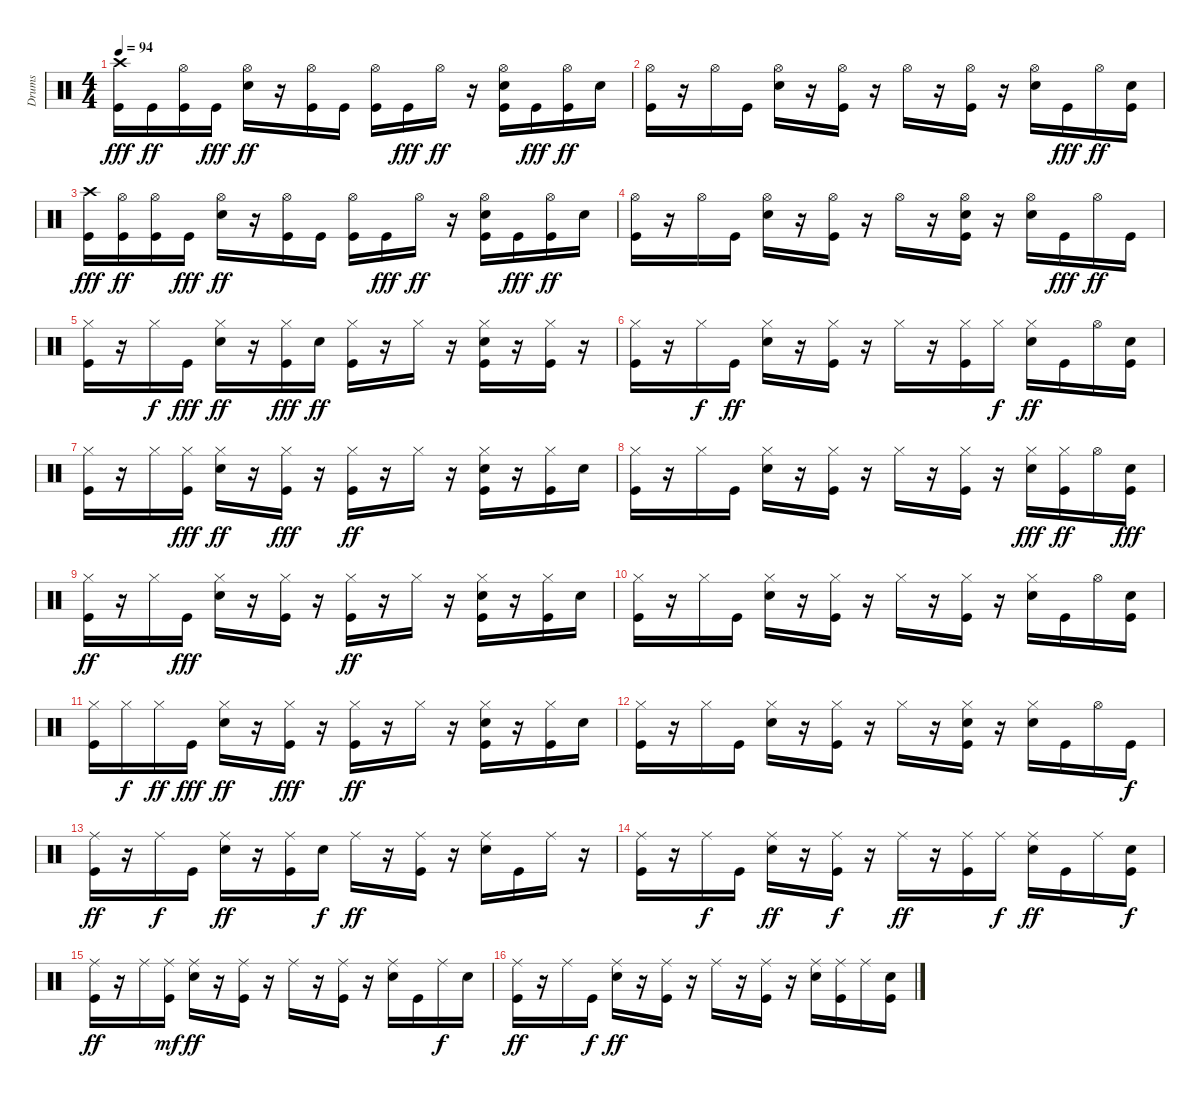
\track ("Drums" "Drums") {instrument percussion}
\staff {score}
\articulation defaults
\ts (4 4)
\tempo 94
\clef neutral
\ks c
("Crash high (hit)" "Kick (hit)").16{dy fff} "Kick (hit)".16{dy ff} ("Kick (hit)" "Hi-Hat (open)").16 "Kick (hit)".16{dy fff} ("Snare (hit) 2" "Hi-Hat (open)").16{dy ff} r.16 ("Kick (hit)" "Hi-Hat (open)").16 "Kick (hit)".16 ("Kick (hit)" "Hi-Hat (open)").16 "Kick (hit)".16{dy fff} "Hi-Hat (open)".16{dy ff} r.16 ("Kick (hit)" "Snare (hit) 2" "Hi-Hat (open)").16 "Kick (hit)".16{dy fff} ("Kick (hit)" "Hi-Hat (open)").16{dy ff} "Snare (hit) 2".16 |
("Kick (hit)" "Hi-Hat (open)").16 r.16 "Hi-Hat (open)".16 "Kick (hit)".16 ("Snare (hit) 2" "Hi-Hat (open)").16 r.16 ("Kick (hit)" "Hi-Hat (open)").16 r.16 "Hi-Hat (open)".16 r.16 ("Kick (hit)" "Hi-Hat (open)").16 r.16 ("Snare (hit) 2" "Hi-Hat (open)").16 "Kick (hit)".16{dy fff} "Hi-Hat (open)".16{dy ff} ("Kick (hit)" "Snare (hit) 2").16 |
("Crash high (hit)" "Kick (hit)").16{dy fff} ("Hi-Hat (open)" "Kick (hit)").16{dy ff} ("Kick (hit)" "Hi-Hat (open)").16 "Kick (hit)".16{dy fff} ("Snare (hit) 2" "Hi-Hat (open)").16{dy ff} r.16 ("Kick (hit)" "Hi-Hat (open)").16 "Kick (hit)".16 ("Kick (hit)" "Hi-Hat (open)").16 "Kick (hit)".16{dy fff} "Hi-Hat (open)".16{dy ff} r.16 ("Kick (hit)" "Snare (hit) 2" "Hi-Hat (open)").16 "Kick (hit)".16{dy fff} ("Kick (hit)" "Hi-Hat (open)").16{dy ff} "Snare (hit) 2".16 |
("Kick (hit)" "Hi-Hat (open)").16 r.16 "Hi-Hat (open)".16 "Kick (hit)".16 ("Snare (hit) 2" "Hi-Hat (open)").16 r.16 ("Kick (hit)" "Hi-Hat (open)").16 r.16 "Hi-Hat (open)".16 r.16 ("Kick (hit)" "Snare (hit) 2" "Hi-Hat (open)").16 r.16 ("Snare (hit) 2" "Hi-Hat (open)").16 "Kick (hit)".16{dy fff} "Hi-Hat (open)".16{dy ff} "Kick (hit)".16 |
("Hi-Hat (closed)" "Kick (hit)").16 r.16 "Hi-Hat (closed)".16{dy f} "Kick (hit)".16{dy fff} ("Snare (hit) 2" "Hi-Hat (closed)").16{dy ff} r.16 ("Hi-Hat (closed)" "Kick (hit)").16{dy fff} "Snare (hit) 2".16{dy ff} ("Hi-Hat (closed)" "Kick (hit)").16 r.16 "Hi-Hat (closed)".16 r.16 ("Snare (hit) 2" "Hi-Hat (closed)" "Kick (hit)").16 r.16 ("Hi-Hat (closed)" "Kick (hit)").16 r.16 |
("Hi-Hat (closed)" "Kick (hit)").16 r.16 "Hi-Hat (closed)".16{dy f} "Kick (hit)".16{dy ff} ("Snare (hit) 2" "Hi-Hat (closed)").16 r.16 ("Hi-Hat (closed)" "Kick (hit)").16 r.16 "Hi-Hat (closed)".16 r.16 ("Hi-Hat (closed)" "Kick (hit)").16 "Hi-Hat (closed)".16{dy f} ("Snare (hit) 2" "Hi-Hat (closed)").16{dy ff} "Kick (hit)".16 "Hi-Hat (open)".16 ("Kick (hit)" "Snare (hit) 2").16 |
("Hi-Hat (closed)" "Kick (hit)").16 r.16 "Hi-Hat (closed)".16 ("Hi-Hat (closed)" "Kick (hit)").16{dy fff} ("Snare (hit) 2" "Hi-Hat (closed)").16{dy ff} r.16 ("Hi-Hat (closed)" "Kick (hit)").16{dy fff} r.16 ("Hi-Hat (closed)" "Kick (hit)").16{dy ff} r.16 "Hi-Hat (closed)".16 r.16 ("Snare (hit) 2" "Hi-Hat (closed)" "Kick (hit)").16 r.16 ("Hi-Hat (closed)" "Kick (hit)").16 "Snare (hit) 2".16 |
("Hi-Hat (closed)" "Kick (hit)").16 r.16 "Hi-Hat (closed)".16 "Kick (hit)".16 ("Hi-Hat (closed)" "Snare (hit) 2").16 r.16 ("Hi-Hat (closed)" "Kick (hit)").16 r.16 "Hi-Hat (closed)".16 r.16 ("Hi-Hat (closed)" "Kick (hit)").16 r.16 ("Hi-Hat (closed)" "Snare (hit) 2").16{dy fff} ("Hi-Hat (closed)" "Kick (hit)").16{dy ff} "Hi-Hat (open)".16 ("Snare (hit) 2" "Kick (hit)").16{dy fff} |
("Hi-Hat (closed)" "Kick (hit)").16{dy ff} r.16 "Hi-Hat (closed)".16 "Kick (hit)".16{dy fff} ("Hi-Hat (closed)" "Snare (hit) 2").16 r.16 ("Hi-Hat (closed)" "Kick (hit)").16 r.16 ("Hi-Hat (closed)" "Kick (hit)").16{dy ff} r.16 "Hi-Hat (closed)".16 r.16 ("Hi-Hat (closed)" "Kick (hit)" "Snare (hit) 2").16 r.16 ("Hi-Hat (closed)" "Kick (hit)").16 "Snare (hit) 2".16 |
("Hi-Hat (closed)" "Kick (hit)").16 r.16 "Hi-Hat (closed)".16 "Kick (hit)".16 ("Snare (hit) 2" "Hi-Hat (closed)").16 r.16 ("Hi-Hat (closed)" "Kick (hit)").16 r.16 "Hi-Hat (closed)".16 r.16 ("Hi-Hat (closed)" "Kick (hit)").16 r.16 ("Snare (hit) 2" "Hi-Hat (closed)").16 "Kick (hit)".16 "Hi-Hat (open)".16 ("Snare (hit) 2" "Kick (hit)").16 |
("Hi-Hat (closed)" "Kick (hit)").16 "Hi-Hat (closed)".16{dy f} "Hi-Hat (closed)".16{dy ff} "Kick (hit)".16{dy fff} ("Hi-Hat (closed)" "Snare (hit) 2").16{dy ff} r.16 ("Hi-Hat (closed)" "Kick (hit)").16{dy fff} r.16 ("Hi-Hat (closed)" "Kick (hit)").16{dy ff} r.16 "Hi-Hat (closed)".16 r.16 ("Hi-Hat (closed)" "Kick (hit)" "Snare (hit) 2").16 r.16 ("Hi-Hat (closed)" "Kick (hit)").16 "Snare (hit) 2".16 |
("Hi-Hat (closed)" "Kick (hit)").16 r.16 "Hi-Hat (closed)".16 "Kick (hit)".16 ("Snare (hit) 2" "Hi-Hat (closed)").16 r.16 ("Hi-Hat (closed)" "Kick (hit)").16 r.16 "Hi-Hat (closed)".16 r.16 ("Snare (hit) 2" "Hi-Hat (closed)" "Kick (hit)").16 r.16 ("Snare (hit) 2" "Hi-Hat (closed)").16 "Kick (hit)".16 "Hi-Hat (open)".16 "Kick (hit)".16{dy f} |
("Ride (middle)" "Kick (hit)").16{dy ff} r.16 "Ride (middle)".16{dy f} "Kick (hit)".16 ("Ride (middle)" "Snare (hit) 2").16{dy ff} r.16 ("Ride (middle)" "Kick (hit)").16 "Snare (hit) 2".16{dy f} "Ride (middle)".16{dy ff} r.16 ("Ride (middle)" "Kick (hit)").16 r.16 ("Ride (middle)" "Snare (hit) 2").16 "Kick (hit)".16 "Ride (middle)".16 r.16 |
("Ride (middle)" "Kick (hit)").16 r.16 "Ride (middle)".16{dy f} "Kick (hit)".16 ("Ride (middle)" "Snare (hit) 2").16{dy ff} r.16 ("Ride (middle)" "Kick (hit)").16{dy f} r.16 "Ride (middle)".16{dy ff} r.16 ("Ride (middle)" "Kick (hit)").16 "Ride (middle)".16{dy f} ("Ride (middle)" "Snare (hit) 2").16{dy ff} "Kick (hit)".16 "Ride (middle)".16 ("Kick (hit)" "Snare (hit) 2").16{dy f} |
("Ride (middle)" "Kick (hit)").16{dy ff} r.16 "Ride (middle)".16 ("Ride (middle)" "Kick (hit)").16{dy mf} ("Ride (middle)" "Snare (hit) 2").16{dy ff} r.16 ("Ride (middle)" "Kick (hit)").16 r.16 "Ride (middle)".16 r.16 ("Ride (middle)" "Kick (hit)").16 r.16 ("Ride (middle)" "Snare (hit) 2").16 "Kick (hit)".16 "Ride (middle)".16{dy f} "Snare (hit) 2".16 |
("Ride (middle)" "Kick (hit)").16{dy ff} r.16 "Ride (middle)".16 "Kick (hit)".16{dy f} ("Ride (middle)" "Snare (hit) 2").16{dy ff} r.16 ("Ride (middle)" "Kick (hit)").16 r.16 "Ride (middle)".16 r.16 ("Ride (middle)" "Kick (hit)").16 r.16 ("Ride (middle)" "Snare (hit) 2").16 ("Ride (middle)" "Kick (hit)").16 "Ride (middle)".16 ("Kick (hit)" "Snare (hit) 2").16
